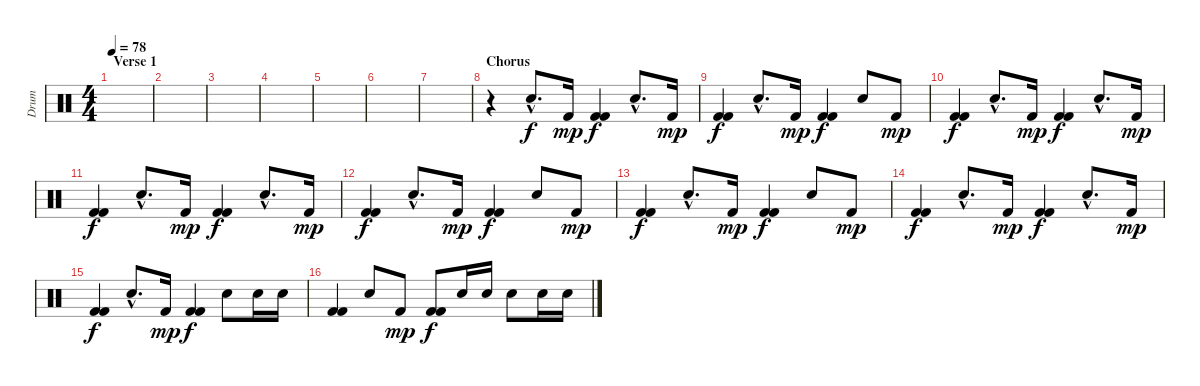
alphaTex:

\track ("Drum" "Drum") {instrument percussion}
\staff {score}
\articulation defaults
\ts (4 4)
\section ("" "Verse 1")
\tempo 78
\clef neutral
\ks c
|
|
|
|
|
|
|
\section ("" "Chorus")
r.4 "Electric Snare (hit)"{hac}.8{d} "Kick (hit) 2".16{dy mp} ("Kick (hit) 2" "Kick (hit) 2").4{dy f} "Electric Snare (hit)"{hac}.8{d} "Kick (hit) 2".16{dy mp} |
("Kick (hit) 2" "Kick (hit) 2").4{dy f} "Electric Snare (hit)"{hac}.8{d} "Kick (hit) 2".16{dy mp} ("Kick (hit) 2" "Kick (hit) 2").4{dy f} "Electric Snare (hit)".8 "Kick (hit) 2".8{dy mp} |
("Kick (hit) 2" "Kick (hit) 2").4{dy f} "Electric Snare (hit)"{hac}.8{d} "Kick (hit) 2".16{dy mp} ("Kick (hit) 2" "Kick (hit) 2").4{dy f} "Electric Snare (hit)"{hac}.8{d} "Kick (hit) 2".16{dy mp} |
("Kick (hit) 2" "Kick (hit) 2").4{dy f} "Electric Snare (hit)"{hac}.8{d} "Kick (hit) 2".16{dy mp} ("Kick (hit) 2" "Kick (hit) 2").4{dy f} "Electric Snare (hit)"{hac}.8{d} "Kick (hit) 2".16{dy mp} |
("Kick (hit) 2" "Kick (hit) 2").4{dy f} "Electric Snare (hit)"{hac}.8{d} "Kick (hit) 2".16{dy mp} ("Kick (hit) 2" "Kick (hit) 2").4{dy f} "Electric Snare (hit)".8 "Kick (hit) 2".8{dy mp} |
("Kick (hit) 2" "Kick (hit) 2").4{dy f} "Electric Snare (hit)"{hac}.8{d} "Kick (hit) 2".16{dy mp} ("Kick (hit) 2" "Kick (hit) 2").4{dy f} "Electric Snare (hit)".8 "Kick (hit) 2".8{dy mp} |
("Kick (hit) 2" "Kick (hit) 2").4{dy f} "Electric Snare (hit)"{hac}.8{d} "Kick (hit) 2".16{dy mp} ("Kick (hit) 2" "Kick (hit) 2").4{dy f} "Electric Snare (hit)"{hac}.8{d} "Kick (hit) 2".16{dy mp} |
("Kick (hit) 2" "Kick (hit) 2").4{dy f} "Electric Snare (hit)"{hac}.8{d} "Kick (hit) 2".16{dy mp} ("Kick (hit) 2" "Kick (hit) 2").4{dy f} "Electric Snare (hit)".8 "Electric Snare (hit)".16 "Electric Snare (hit)".16 |
("Kick (hit) 2" "Kick (hit) 2").4 "Electric Snare (hit)".8 "Kick (hit) 2".8{dy mp} ("Kick (hit) 2" "Kick (hit) 2").8{dy f} "Electric Snare (hit)".16 "Electric Snare (hit)".16 "Electric Snare (hit)".8 "Electric Snare (hit)".16 "Electric Snare (hit)".16
